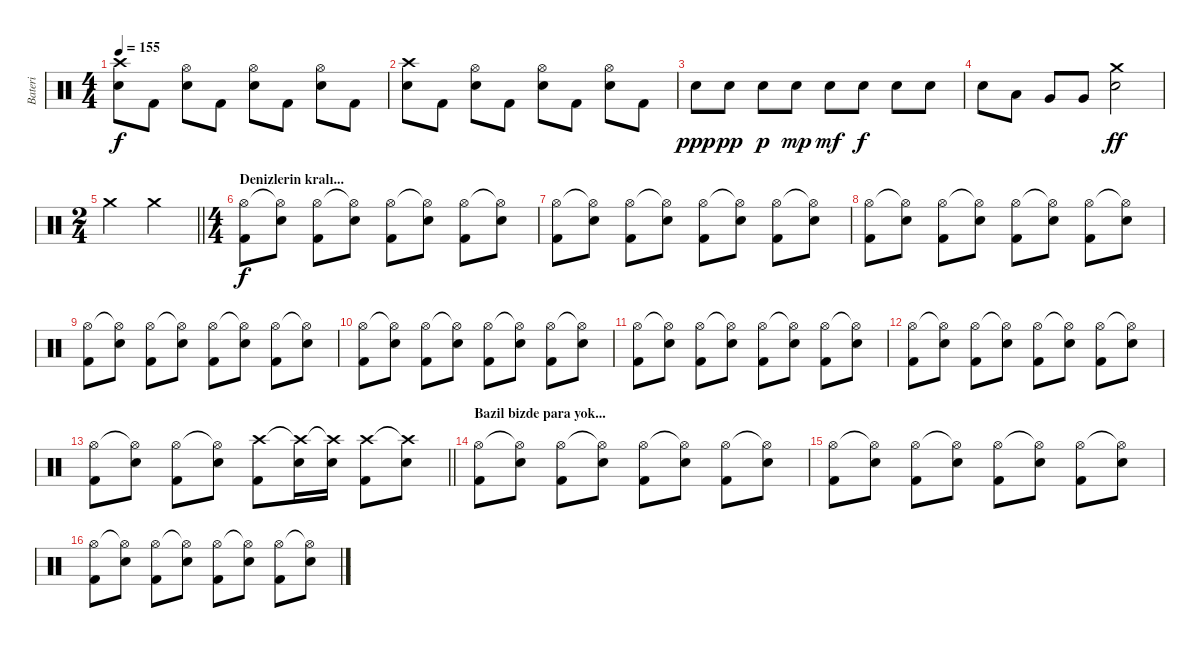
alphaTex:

\track ("Bateri" "Bateri") {instrument percussion}
\staff {score}
\articulation defaults
\ts (4 4)
\tempo 155
\clef neutral
\ks c
("Crash high (hit)" "Snare (hit) 2").8{dy f} "Kick (hit) 2".8 ("Hi-Hat (open)" "Snare (hit) 2").8 "Kick (hit) 2".8 ("Hi-Hat (open)" "Snare (hit) 2").8 "Kick (hit) 2".8 ("Hi-Hat (open)" "Snare (hit) 2").8 "Kick (hit) 2".8 |
("Crash high (hit)" "Snare (hit) 2").8 "Kick (hit) 2".8 ("Hi-Hat (open)" "Snare (hit) 2").8 "Kick (hit) 2".8 ("Hi-Hat (open)" "Snare (hit) 2").8 "Kick (hit) 2".8 ("Hi-Hat (open)" "Snare (hit) 2").8 "Kick (hit) 2".8 |
"Snare (hit) 2".8{dy ppp} "Snare (hit) 2".8{dy pp} "Snare (hit) 2".8{dy p} "Snare (hit) 2".8{dy mp} "Snare (hit) 2".8{dy mf} "Snare (hit) 2".8{dy f} "Snare (hit) 2".8 "Snare (hit) 2".8 |
"Snare (hit) 2".8 "Low Tom (hit)".8 "Very Low Tom (hit)".8 "Very Low Tom (hit)".8 ("Crash medium (hit)" "Snare (hit) 2").2{dy ff} |
\ts (2 4)
\barLineRight lightlight "Crash medium (hit)".4 "Crash medium (hit)".4
|
\ts (4 4)
\section ("" "Denizlerin kralı...")
("Hi-Hat (open)" "Kick (hit) 2").8{dy f} ("Hi-Hat (open)"{t} "Snare (hit) 2").8 ("Hi-Hat (open)" "Kick (hit) 2").8 ("Hi-Hat (open)"{t} "Snare (hit) 2").8 ("Hi-Hat (open)" "Kick (hit) 2").8 ("Hi-Hat (open)"{t} "Snare (hit) 2").8 ("Hi-Hat (open)" "Kick (hit) 2").8 ("Hi-Hat (open)"{t} "Snare (hit) 2").8 |
("Hi-Hat (open)" "Kick (hit) 2").8 ("Hi-Hat (open)"{t} "Snare (hit) 2").8 ("Hi-Hat (open)" "Kick (hit) 2").8 ("Hi-Hat (open)"{t} "Snare (hit) 2").8 ("Hi-Hat (open)" "Kick (hit) 2").8 ("Hi-Hat (open)"{t} "Snare (hit) 2").8 ("Hi-Hat (open)" "Kick (hit) 2").8 ("Hi-Hat (open)"{t} "Snare (hit) 2").8 |
("Hi-Hat (open)" "Kick (hit) 2").8 ("Hi-Hat (open)"{t} "Snare (hit) 2").8 ("Hi-Hat (open)" "Kick (hit) 2").8 ("Hi-Hat (open)"{t} "Snare (hit) 2").8 ("Hi-Hat (open)" "Kick (hit) 2").8 ("Hi-Hat (open)"{t} "Snare (hit) 2").8 ("Hi-Hat (open)" "Kick (hit) 2").8 ("Hi-Hat (open)"{t} "Snare (hit) 2").8 |
("Hi-Hat (open)" "Kick (hit) 2").8 ("Hi-Hat (open)"{t} "Snare (hit) 2").8 ("Hi-Hat (open)" "Kick (hit) 2").8 ("Hi-Hat (open)"{t} "Snare (hit) 2").8 ("Hi-Hat (open)" "Kick (hit) 2").8 ("Hi-Hat (open)"{t} "Snare (hit) 2").8 ("Hi-Hat (open)" "Kick (hit) 2").8 ("Hi-Hat (open)"{t} "Snare (hit) 2").8 |
("Hi-Hat (open)" "Kick (hit) 2").8 ("Hi-Hat (open)"{t} "Snare (hit) 2").8 ("Hi-Hat (open)" "Kick (hit) 2").8 ("Hi-Hat (open)"{t} "Snare (hit) 2").8 ("Hi-Hat (open)" "Kick (hit) 2").8 ("Hi-Hat (open)"{t} "Snare (hit) 2").8 ("Hi-Hat (open)" "Kick (hit) 2").8 ("Hi-Hat (open)"{t} "Snare (hit) 2").8 |
("Hi-Hat (open)" "Kick (hit) 2").8 ("Hi-Hat (open)"{t} "Snare (hit) 2").8 ("Hi-Hat (open)" "Kick (hit) 2").8 ("Hi-Hat (open)"{t} "Snare (hit) 2").8 ("Hi-Hat (open)" "Kick (hit) 2").8 ("Hi-Hat (open)"{t} "Snare (hit) 2").8 ("Hi-Hat (open)" "Kick (hit) 2").8 ("Hi-Hat (open)"{t} "Snare (hit) 2").8 |
("Hi-Hat (open)" "Kick (hit) 2").8 ("Hi-Hat (open)"{t} "Snare (hit) 2").8 ("Hi-Hat (open)" "Kick (hit) 2").8 ("Hi-Hat (open)"{t} "Snare (hit) 2").8 ("Hi-Hat (open)" "Kick (hit) 2").8 ("Hi-Hat (open)"{t} "Snare (hit) 2").8 ("Hi-Hat (open)" "Kick (hit) 2").8 ("Hi-Hat (open)"{t} "Snare (hit) 2").8 |
\barLineRight lightlight
("Hi-Hat (open)" "Kick (hit) 2").8 ("Hi-Hat (open)"{t} "Snare (hit) 2").8 ("Hi-Hat (open)" "Kick (hit) 2").8 ("Hi-Hat (open)"{t} "Snare (hit) 2").8 ("Crash high (hit)" "Kick (hit) 2").8 ("Crash high (hit)"{t} "Snare (hit) 2").16 ("Crash high (hit)"{t} "Snare (hit) 2").16 ("Crash high (hit)" "Kick (hit) 2").8 ("Crash high (hit)"{t} "Snare (hit) 2").8 |
\section ("" "Bazil bizde para yok...")
("Hi-Hat (open)" "Kick (hit) 2").8 ("Hi-Hat (open)"{t} "Snare (hit) 2").8 ("Hi-Hat (open)" "Kick (hit) 2").8 ("Hi-Hat (open)"{t} "Snare (hit) 2").8 ("Hi-Hat (open)" "Kick (hit) 2").8 ("Hi-Hat (open)"{t} "Snare (hit) 2").8 ("Hi-Hat (open)" "Kick (hit) 2").8 ("Hi-Hat (open)"{t} "Snare (hit) 2").8 |
("Hi-Hat (open)" "Kick (hit) 2").8 ("Hi-Hat (open)"{t} "Snare (hit) 2").8 ("Hi-Hat (open)" "Kick (hit) 2").8 ("Hi-Hat (open)"{t} "Snare (hit) 2").8 ("Hi-Hat (open)" "Kick (hit) 2").8 ("Hi-Hat (open)"{t} "Snare (hit) 2").8 ("Hi-Hat (open)" "Kick (hit) 2").8 ("Hi-Hat (open)"{t} "Snare (hit) 2").8 |
("Hi-Hat (open)" "Kick (hit) 2").8 ("Hi-Hat (open)"{t} "Snare (hit) 2").8 ("Hi-Hat (open)" "Kick (hit) 2").8 ("Hi-Hat (open)"{t} "Snare (hit) 2").8 ("Hi-Hat (open)" "Kick (hit) 2").8 ("Hi-Hat (open)"{t} "Snare (hit) 2").8 ("Hi-Hat (open)" "Kick (hit) 2").8 ("Hi-Hat (open)"{t} "Snare (hit) 2").8
